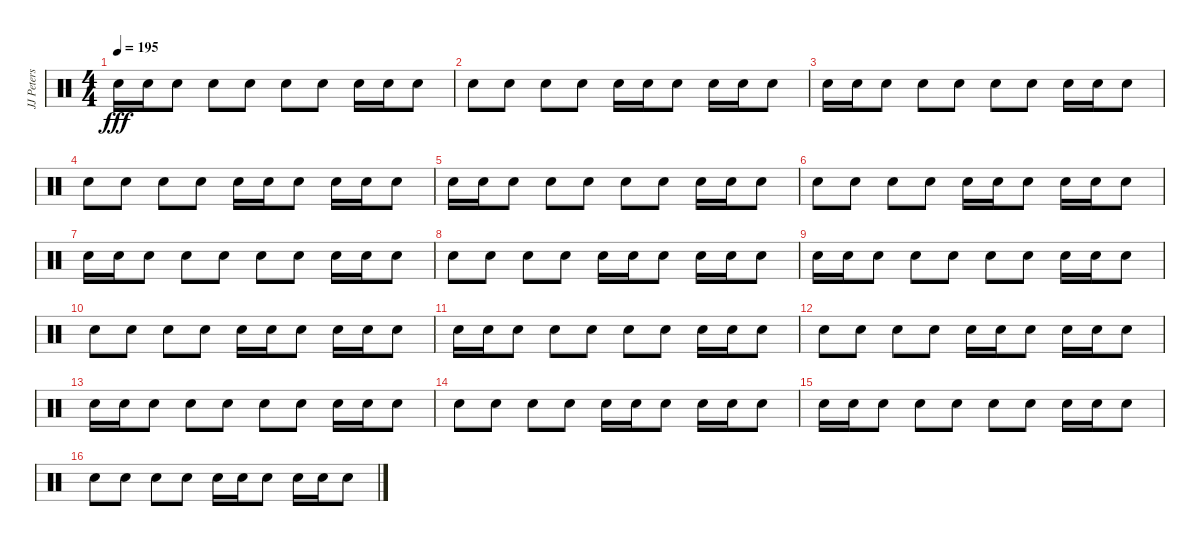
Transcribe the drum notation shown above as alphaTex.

\track ("JJ Peters" "JJ Peters") {instrument percussion}
\staff {score}
\articulation defaults
\ts (4 4)
\tempo 195
\clef neutral
\ks c "Electric Snare (hit)".16{dy fff} "Electric Snare (hit)".16 "Electric Snare (hit)".8 "Electric Snare (hit)".8 "Electric Snare (hit)".8 "Electric Snare (hit)".8 "Electric Snare (hit)".8 "Electric Snare (hit)".16 "Electric Snare (hit)".16 "Electric Snare (hit)".8
|
"Electric Snare (hit)".8 "Electric Snare (hit)".8 "Electric Snare (hit)".8 "Electric Snare (hit)".8 "Electric Snare (hit)".16 "Electric Snare (hit)".16 "Electric Snare (hit)".8 "Electric Snare (hit)".16 "Electric Snare (hit)".16 "Electric Snare (hit)".8 |
"Electric Snare (hit)".16 "Electric Snare (hit)".16 "Electric Snare (hit)".8 "Electric Snare (hit)".8 "Electric Snare (hit)".8 "Electric Snare (hit)".8 "Electric Snare (hit)".8 "Electric Snare (hit)".16 "Electric Snare (hit)".16 "Electric Snare (hit)".8 |
"Electric Snare (hit)".8 "Electric Snare (hit)".8 "Electric Snare (hit)".8 "Electric Snare (hit)".8 "Electric Snare (hit)".16 "Electric Snare (hit)".16 "Electric Snare (hit)".8 "Electric Snare (hit)".16 "Electric Snare (hit)".16 "Electric Snare (hit)".8 |
"Electric Snare (hit)".16 "Electric Snare (hit)".16 "Electric Snare (hit)".8 "Electric Snare (hit)".8 "Electric Snare (hit)".8 "Electric Snare (hit)".8 "Electric Snare (hit)".8 "Electric Snare (hit)".16 "Electric Snare (hit)".16 "Electric Snare (hit)".8 |
"Electric Snare (hit)".8 "Electric Snare (hit)".8 "Electric Snare (hit)".8 "Electric Snare (hit)".8 "Electric Snare (hit)".16 "Electric Snare (hit)".16 "Electric Snare (hit)".8 "Electric Snare (hit)".16 "Electric Snare (hit)".16 "Electric Snare (hit)".8 |
"Electric Snare (hit)".16 "Electric Snare (hit)".16 "Electric Snare (hit)".8 "Electric Snare (hit)".8 "Electric Snare (hit)".8 "Electric Snare (hit)".8 "Electric Snare (hit)".8 "Electric Snare (hit)".16 "Electric Snare (hit)".16 "Electric Snare (hit)".8 |
"Electric Snare (hit)".8 "Electric Snare (hit)".8 "Electric Snare (hit)".8 "Electric Snare (hit)".8 "Electric Snare (hit)".16 "Electric Snare (hit)".16 "Electric Snare (hit)".8 "Electric Snare (hit)".16 "Electric Snare (hit)".16 "Electric Snare (hit)".8 |
"Electric Snare (hit)".16 "Electric Snare (hit)".16 "Electric Snare (hit)".8 "Electric Snare (hit)".8 "Electric Snare (hit)".8 "Electric Snare (hit)".8 "Electric Snare (hit)".8 "Electric Snare (hit)".16 "Electric Snare (hit)".16 "Electric Snare (hit)".8 |
"Electric Snare (hit)".8 "Electric Snare (hit)".8 "Electric Snare (hit)".8 "Electric Snare (hit)".8 "Electric Snare (hit)".16 "Electric Snare (hit)".16 "Electric Snare (hit)".8 "Electric Snare (hit)".16 "Electric Snare (hit)".16 "Electric Snare (hit)".8 |
"Electric Snare (hit)".16 "Electric Snare (hit)".16 "Electric Snare (hit)".8 "Electric Snare (hit)".8 "Electric Snare (hit)".8 "Electric Snare (hit)".8 "Electric Snare (hit)".8 "Electric Snare (hit)".16 "Electric Snare (hit)".16 "Electric Snare (hit)".8 |
"Electric Snare (hit)".8 "Electric Snare (hit)".8 "Electric Snare (hit)".8 "Electric Snare (hit)".8 "Electric Snare (hit)".16 "Electric Snare (hit)".16 "Electric Snare (hit)".8 "Electric Snare (hit)".16 "Electric Snare (hit)".16 "Electric Snare (hit)".8 |
"Electric Snare (hit)".16 "Electric Snare (hit)".16 "Electric Snare (hit)".8 "Electric Snare (hit)".8 "Electric Snare (hit)".8 "Electric Snare (hit)".8 "Electric Snare (hit)".8 "Electric Snare (hit)".16 "Electric Snare (hit)".16 "Electric Snare (hit)".8 |
"Electric Snare (hit)".8 "Electric Snare (hit)".8 "Electric Snare (hit)".8 "Electric Snare (hit)".8 "Electric Snare (hit)".16 "Electric Snare (hit)".16 "Electric Snare (hit)".8 "Electric Snare (hit)".16 "Electric Snare (hit)".16 "Electric Snare (hit)".8 |
"Electric Snare (hit)".16 "Electric Snare (hit)".16 "Electric Snare (hit)".8 "Electric Snare (hit)".8 "Electric Snare (hit)".8 "Electric Snare (hit)".8 "Electric Snare (hit)".8 "Electric Snare (hit)".16 "Electric Snare (hit)".16 "Electric Snare (hit)".8 |
"Electric Snare (hit)".8 "Electric Snare (hit)".8 "Electric Snare (hit)".8 "Electric Snare (hit)".8 "Electric Snare (hit)".16 "Electric Snare (hit)".16 "Electric Snare (hit)".8 "Electric Snare (hit)".16 "Electric Snare (hit)".16 "Electric Snare (hit)".8
